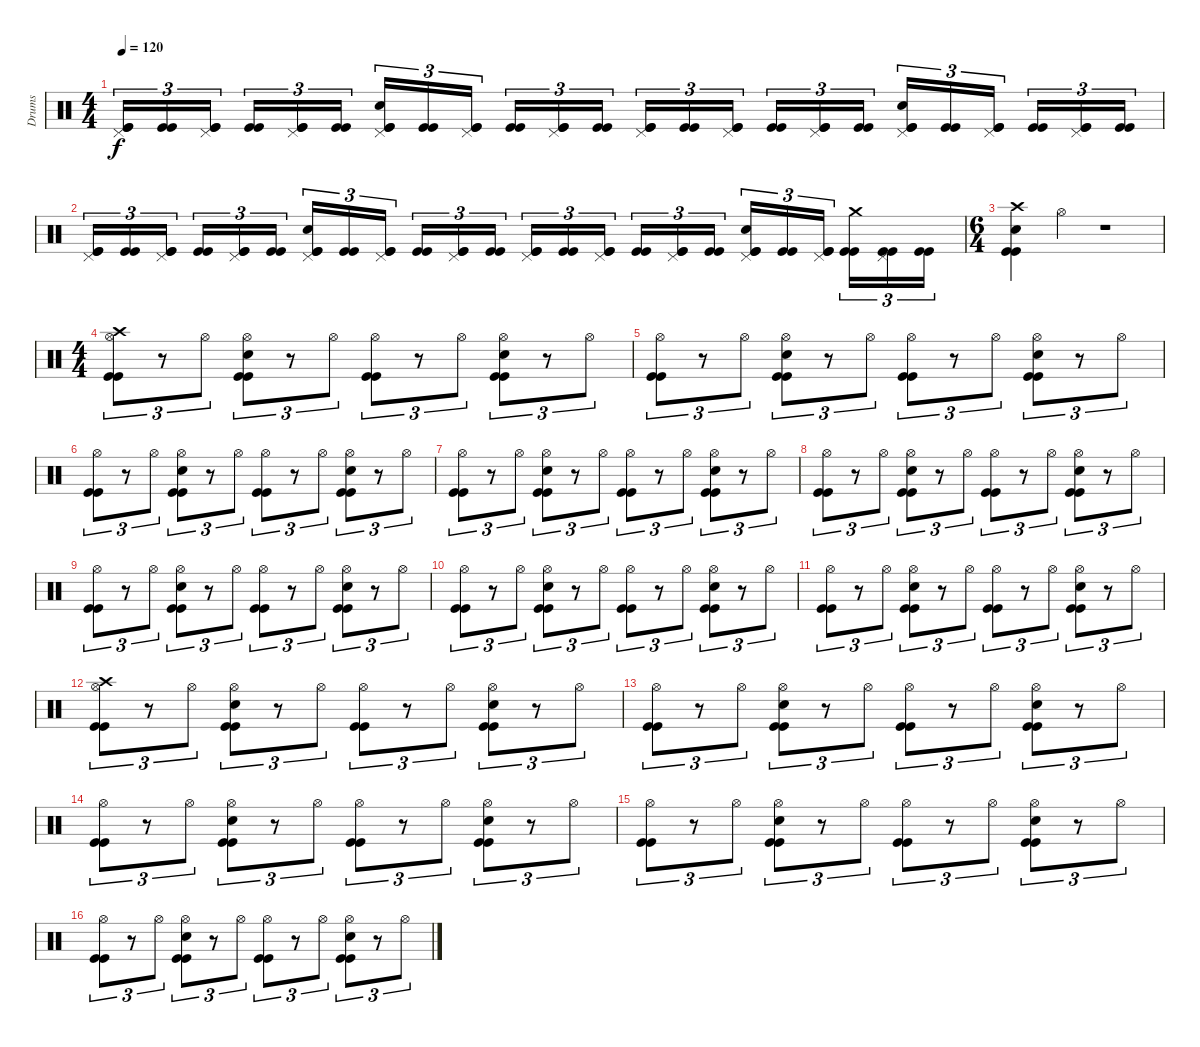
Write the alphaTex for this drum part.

\track ("Drums" "Drums") {instrument percussion}
\staff {score}
\articulation defaults
\ts (4 4)
\tempo 120
\clef neutral
\ks c
("Pedal Hi-Hat (hit)" "Kick (hit)" "Kick (hit)").16{tu (3 2) dy f} ("Kick (hit)" "Kick (hit)").16{tu (3 2)} ("Pedal Hi-Hat (hit)" "Kick (hit)" "Kick (hit)").16{tu (3 2)} ("Kick (hit)" "Kick (hit)").16{tu (3 2)} ("Pedal Hi-Hat (hit)" "Kick (hit)" "Kick (hit)").16{tu (3 2)} ("Kick (hit)" "Kick (hit)").16{tu (3 2)} ("Snare (hit) 2" "Pedal Hi-Hat (hit)" "Kick (hit)" "Kick (hit)").16{tu (3 2)} ("Kick (hit)" "Kick (hit)").16{tu (3 2)} ("Pedal Hi-Hat (hit)" "Kick (hit)" "Kick (hit)").16{tu (3 2)} ("Kick (hit)" "Kick (hit)").16{tu (3 2)} ("Pedal Hi-Hat (hit)" "Kick (hit)" "Kick (hit)").16{tu (3 2)} ("Kick (hit)" "Kick (hit)").16{tu (3 2)} ("Pedal Hi-Hat (hit)" "Kick (hit)" "Kick (hit)").16{tu (3 2)} ("Kick (hit)" "Kick (hit)").16{tu (3 2)} ("Pedal Hi-Hat (hit)" "Kick (hit)" "Kick (hit)").16{tu (3 2)} ("Kick (hit)" "Kick (hit)").16{tu (3 2)} ("Pedal Hi-Hat (hit)" "Kick (hit)" "Kick (hit)").16{tu (3 2)} ("Kick (hit)" "Kick (hit)").16{tu (3 2)} ("Snare (hit) 2" "Pedal Hi-Hat (hit)" "Kick (hit)" "Kick (hit)").16{tu (3 2)} ("Kick (hit)" "Kick (hit)").16{tu (3 2)} ("Pedal Hi-Hat (hit)" "Kick (hit)" "Kick (hit)").16{tu (3 2)} ("Kick (hit)" "Kick (hit)").16{tu (3 2)} ("Pedal Hi-Hat (hit)" "Kick (hit)" "Kick (hit)").16{tu (3 2)} ("Kick (hit)" "Kick (hit)").16{tu (3 2)} |
("Pedal Hi-Hat (hit)" "Kick (hit)" "Kick (hit)").16{tu (3 2)} ("Kick (hit)" "Kick (hit)").16{tu (3 2)} ("Pedal Hi-Hat (hit)" "Kick (hit)" "Kick (hit)").16{tu (3 2)} ("Kick (hit)" "Kick (hit)").16{tu (3 2)} ("Pedal Hi-Hat (hit)" "Kick (hit)" "Kick (hit)").16{tu (3 2)} ("Kick (hit)" "Kick (hit)").16{tu (3 2)} ("Snare (hit) 2" "Pedal Hi-Hat (hit)" "Kick (hit)" "Kick (hit)").16{tu (3 2)} ("Kick (hit)" "Kick (hit)").16{tu (3 2)} ("Pedal Hi-Hat (hit)" "Kick (hit)" "Kick (hit)").16{tu (3 2)} ("Kick (hit)" "Kick (hit)").16{tu (3 2)} ("Pedal Hi-Hat (hit)" "Kick (hit)" "Kick (hit)").16{tu (3 2)} ("Kick (hit)" "Kick (hit)").16{tu (3 2)} ("Pedal Hi-Hat (hit)" "Kick (hit)" "Kick (hit)").16{tu (3 2)} ("Kick (hit)" "Kick (hit)").16{tu (3 2)} ("Pedal Hi-Hat (hit)" "Kick (hit)" "Kick (hit)").16{tu (3 2)} ("Kick (hit)" "Kick (hit)").16{tu (3 2)} ("Pedal Hi-Hat (hit)" "Kick (hit)" "Kick (hit)").16{tu (3 2)} ("Kick (hit)" "Kick (hit)").16{tu (3 2)} ("Snare (hit) 2" "Pedal Hi-Hat (hit)" "Kick (hit)" "Kick (hit)").16{tu (3 2)} ("Kick (hit)" "Kick (hit)").16{tu (3 2)} ("Pedal Hi-Hat (hit)" "Kick (hit)" "Kick (hit)").16{tu (3 2)} ("Crash medium (hit)" "Kick (hit)" "Kick (hit)").16{tu (3 2)} ("Pedal Hi-Hat (hit)" "Kick (hit)" "Kick (hit)").16{tu (3 2)} ("Kick (hit)" "Kick (hit)").16{tu (3 2)} |
\ts (6 4)
("Crash high (hit)" "Snare (hit) 2" "Kick (hit)" "Kick (hit)").4 "Hi-Hat (open)".4 r.1 |
\ts (4 4)
("Crash high (hit)" "Hi-Hat (open)" "Kick (hit)" "Kick (hit)").8{tu (3 2)} r.8{tu (3 2)} "Hi-Hat (open)".8{tu (3 2)} ("Snare (hit) 2" "Hi-Hat (open)" "Kick (hit)" "Kick (hit)").8{tu (3 2)} r.8{tu (3 2)} "Hi-Hat (open)".8{tu (3 2)} ("Hi-Hat (open)" "Kick (hit)" "Kick (hit)").8{tu (3 2)} r.8{tu (3 2)} "Hi-Hat (open)".8{tu (3 2)} ("Snare (hit) 2" "Hi-Hat (open)" "Kick (hit)" "Kick (hit)").8{tu (3 2)} r.8{tu (3 2)} "Hi-Hat (open)".8{tu (3 2)} |
("Hi-Hat (open)" "Kick (hit)" "Kick (hit)").8{tu (3 2)} r.8{tu (3 2)} "Hi-Hat (open)".8{tu (3 2)} ("Snare (hit) 2" "Hi-Hat (open)" "Kick (hit)" "Kick (hit)").8{tu (3 2)} r.8{tu (3 2)} "Hi-Hat (open)".8{tu (3 2)} ("Hi-Hat (open)" "Kick (hit)" "Kick (hit)").8{tu (3 2)} r.8{tu (3 2)} "Hi-Hat (open)".8{tu (3 2)} ("Snare (hit) 2" "Hi-Hat (open)" "Kick (hit)" "Kick (hit)").8{tu (3 2)} r.8{tu (3 2)} "Hi-Hat (open)".8{tu (3 2)} |
("Hi-Hat (open)" "Kick (hit)" "Kick (hit)").8{tu (3 2)} r.8{tu (3 2)} "Hi-Hat (open)".8{tu (3 2)} ("Snare (hit) 2" "Hi-Hat (open)" "Kick (hit)" "Kick (hit)").8{tu (3 2)} r.8{tu (3 2)} "Hi-Hat (open)".8{tu (3 2)} ("Hi-Hat (open)" "Kick (hit)" "Kick (hit)").8{tu (3 2)} r.8{tu (3 2)} "Hi-Hat (open)".8{tu (3 2)} ("Snare (hit) 2" "Hi-Hat (open)" "Kick (hit)" "Kick (hit)").8{tu (3 2)} r.8{tu (3 2)} "Hi-Hat (open)".8{tu (3 2)} |
("Hi-Hat (open)" "Kick (hit)" "Kick (hit)").8{tu (3 2)} r.8{tu (3 2)} "Hi-Hat (open)".8{tu (3 2)} ("Snare (hit) 2" "Hi-Hat (open)" "Kick (hit)" "Kick (hit)").8{tu (3 2)} r.8{tu (3 2)} "Hi-Hat (open)".8{tu (3 2)} ("Hi-Hat (open)" "Kick (hit)" "Kick (hit)").8{tu (3 2)} r.8{tu (3 2)} "Hi-Hat (open)".8{tu (3 2)} ("Snare (hit) 2" "Hi-Hat (open)" "Kick (hit)" "Kick (hit)").8{tu (3 2)} r.8{tu (3 2)} "Hi-Hat (open)".8{tu (3 2)} |
("Hi-Hat (open)" "Kick (hit)" "Kick (hit)").8{tu (3 2)} r.8{tu (3 2)} "Hi-Hat (open)".8{tu (3 2)} ("Snare (hit) 2" "Hi-Hat (open)" "Kick (hit)" "Kick (hit)").8{tu (3 2)} r.8{tu (3 2)} "Hi-Hat (open)".8{tu (3 2)} ("Hi-Hat (open)" "Kick (hit)" "Kick (hit)").8{tu (3 2)} r.8{tu (3 2)} "Hi-Hat (open)".8{tu (3 2)} ("Snare (hit) 2" "Hi-Hat (open)" "Kick (hit)" "Kick (hit)").8{tu (3 2)} r.8{tu (3 2)} "Hi-Hat (open)".8{tu (3 2)} |
("Hi-Hat (open)" "Kick (hit)" "Kick (hit)").8{tu (3 2)} r.8{tu (3 2)} "Hi-Hat (open)".8{tu (3 2)} ("Snare (hit) 2" "Hi-Hat (open)" "Kick (hit)" "Kick (hit)").8{tu (3 2)} r.8{tu (3 2)} "Hi-Hat (open)".8{tu (3 2)} ("Hi-Hat (open)" "Kick (hit)" "Kick (hit)").8{tu (3 2)} r.8{tu (3 2)} "Hi-Hat (open)".8{tu (3 2)} ("Snare (hit) 2" "Hi-Hat (open)" "Kick (hit)" "Kick (hit)").8{tu (3 2)} r.8{tu (3 2)} "Hi-Hat (open)".8{tu (3 2)} |
("Hi-Hat (open)" "Kick (hit)" "Kick (hit)").8{tu (3 2)} r.8{tu (3 2)} "Hi-Hat (open)".8{tu (3 2)} ("Snare (hit) 2" "Hi-Hat (open)" "Kick (hit)" "Kick (hit)").8{tu (3 2)} r.8{tu (3 2)} "Hi-Hat (open)".8{tu (3 2)} ("Hi-Hat (open)" "Kick (hit)" "Kick (hit)").8{tu (3 2)} r.8{tu (3 2)} "Hi-Hat (open)".8{tu (3 2)} ("Snare (hit) 2" "Hi-Hat (open)" "Kick (hit)" "Kick (hit)").8{tu (3 2)} r.8{tu (3 2)} "Hi-Hat (open)".8{tu (3 2)} |
("Hi-Hat (open)" "Kick (hit)" "Kick (hit)").8{tu (3 2)} r.8{tu (3 2)} "Hi-Hat (open)".8{tu (3 2)} ("Snare (hit) 2" "Hi-Hat (open)" "Kick (hit)" "Kick (hit)").8{tu (3 2)} r.8{tu (3 2)} "Hi-Hat (open)".8{tu (3 2)} ("Hi-Hat (open)" "Kick (hit)" "Kick (hit)").8{tu (3 2)} r.8{tu (3 2)} "Hi-Hat (open)".8{tu (3 2)} ("Snare (hit) 2" "Hi-Hat (open)" "Kick (hit)" "Kick (hit)").8{tu (3 2)} r.8{tu (3 2)} "Hi-Hat (open)".8{tu (3 2)} |
("Crash high (hit)" "Hi-Hat (open)" "Kick (hit)" "Kick (hit)").8{tu (3 2)} r.8{tu (3 2)} "Hi-Hat (open)".8{tu (3 2)} ("Snare (hit) 2" "Hi-Hat (open)" "Kick (hit)" "Kick (hit)").8{tu (3 2)} r.8{tu (3 2)} "Hi-Hat (open)".8{tu (3 2)} ("Hi-Hat (open)" "Kick (hit)" "Kick (hit)").8{tu (3 2)} r.8{tu (3 2)} "Hi-Hat (open)".8{tu (3 2)} ("Snare (hit) 2" "Hi-Hat (open)" "Kick (hit)" "Kick (hit)").8{tu (3 2)} r.8{tu (3 2)} "Hi-Hat (open)".8{tu (3 2)} |
("Hi-Hat (open)" "Kick (hit)" "Kick (hit)").8{tu (3 2)} r.8{tu (3 2)} "Hi-Hat (open)".8{tu (3 2)} ("Snare (hit) 2" "Hi-Hat (open)" "Kick (hit)" "Kick (hit)").8{tu (3 2)} r.8{tu (3 2)} "Hi-Hat (open)".8{tu (3 2)} ("Hi-Hat (open)" "Kick (hit)" "Kick (hit)").8{tu (3 2)} r.8{tu (3 2)} "Hi-Hat (open)".8{tu (3 2)} ("Snare (hit) 2" "Hi-Hat (open)" "Kick (hit)" "Kick (hit)").8{tu (3 2)} r.8{tu (3 2)} "Hi-Hat (open)".8{tu (3 2)} |
("Hi-Hat (open)" "Kick (hit)" "Kick (hit)").8{tu (3 2)} r.8{tu (3 2)} "Hi-Hat (open)".8{tu (3 2)} ("Snare (hit) 2" "Hi-Hat (open)" "Kick (hit)" "Kick (hit)").8{tu (3 2)} r.8{tu (3 2)} "Hi-Hat (open)".8{tu (3 2)} ("Hi-Hat (open)" "Kick (hit)" "Kick (hit)").8{tu (3 2)} r.8{tu (3 2)} "Hi-Hat (open)".8{tu (3 2)} ("Snare (hit) 2" "Hi-Hat (open)" "Kick (hit)" "Kick (hit)").8{tu (3 2)} r.8{tu (3 2)} "Hi-Hat (open)".8{tu (3 2)} |
("Hi-Hat (open)" "Kick (hit)" "Kick (hit)").8{tu (3 2)} r.8{tu (3 2)} "Hi-Hat (open)".8{tu (3 2)} ("Snare (hit) 2" "Hi-Hat (open)" "Kick (hit)" "Kick (hit)").8{tu (3 2)} r.8{tu (3 2)} "Hi-Hat (open)".8{tu (3 2)} ("Hi-Hat (open)" "Kick (hit)" "Kick (hit)").8{tu (3 2)} r.8{tu (3 2)} "Hi-Hat (open)".8{tu (3 2)} ("Snare (hit) 2" "Hi-Hat (open)" "Kick (hit)" "Kick (hit)").8{tu (3 2)} r.8{tu (3 2)} "Hi-Hat (open)".8{tu (3 2)} |
("Hi-Hat (open)" "Kick (hit)" "Kick (hit)").8{tu (3 2)} r.8{tu (3 2)} "Hi-Hat (open)".8{tu (3 2)} ("Snare (hit) 2" "Hi-Hat (open)" "Kick (hit)" "Kick (hit)").8{tu (3 2)} r.8{tu (3 2)} "Hi-Hat (open)".8{tu (3 2)} ("Hi-Hat (open)" "Kick (hit)" "Kick (hit)").8{tu (3 2)} r.8{tu (3 2)} "Hi-Hat (open)".8{tu (3 2)} ("Snare (hit) 2" "Hi-Hat (open)" "Kick (hit)" "Kick (hit)").8{tu (3 2)} r.8{tu (3 2)} "Hi-Hat (open)".8{tu (3 2)}
